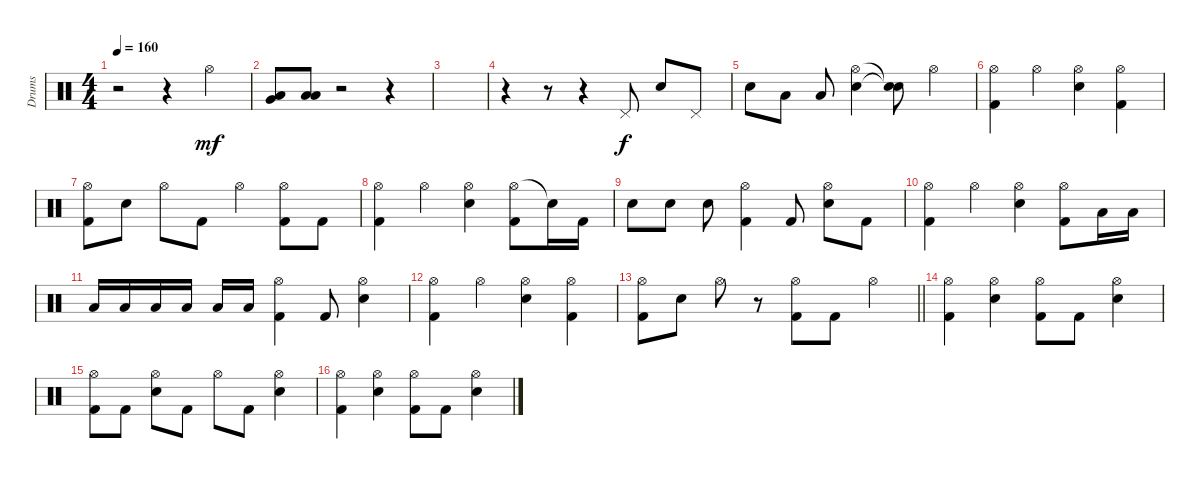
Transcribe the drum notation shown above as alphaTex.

\track ("Drums" "Drums") {instrument percussion}
\staff {score}
\articulation defaults
\ts (4 4)
\tempo 160
\clef neutral
\ks c
r.2{dy mf} r.4 "Hi-Hat (open)".4 |
("Very Low Tom (hit)" "Low Tom (hit)").8 ("Low Floor Tom (hit)" "Low Tom (hit)").8 r.2 r.4 |
|
r.4 r.8 r.4 "Pedal Hi-Hat (hit)".8{dy f} "Electric Snare (hit)".8 "Pedal Hi-Hat (hit)".8 |
"Electric Snare (hit)".8 "Low Tom (hit)".8 "Low Tom (hit)".8 ("Hi-Hat (open)" "Electric Snare (hit)").4 ("Snare (hit)"{t} "Snare (hit)"{t}).8 "Hi-Hat (open)".4 |
("Hi-Hat (open)" "Kick (hit) 2").4 "Hi-Hat (open)".4 ("Hi-Hat (open)" "Electric Snare (hit)").4 ("Hi-Hat (open)" "Kick (hit) 2").4 |
("Hi-Hat (open)" "Kick (hit) 2").8 "Electric Snare (hit)".8 "Hi-Hat (open)".8 "Kick (hit) 2".8 "Hi-Hat (open)".4 ("Hi-Hat (open)" "Kick (hit) 2").8 "Kick (hit) 2".8 |
("Hi-Hat (open)" "Kick (hit) 2").4 "Hi-Hat (open)".4 ("Hi-Hat (open)" "Electric Snare (hit)").4 ("Hi-Hat (open)" "Kick (hit) 2").8 "Snare (hit)"{t}.16 "Kick (hit) 2".16 |
"Electric Snare (hit)".8 "Electric Snare (hit)".8 "Electric Snare (hit)".8 ("Hi-Hat (open)" "Kick (hit) 2").4 "Kick (hit) 2".8 ("Hi-Hat (open)" "Electric Snare (hit)").8 "Kick (hit) 2".8 |
("Hi-Hat (open)" "Kick (hit) 2").4 "Hi-Hat (open)".4 ("Hi-Hat (open)" "Electric Snare (hit)").4 ("Hi-Hat (open)" "Kick (hit) 2").8 "Low Floor Tom (hit)".16 "Low Floor Tom (hit)".16 |
"Low Tom (hit)".16 "Low Tom (hit)".16 "Low Floor Tom (hit)".16 "Low Floor Tom (hit)".16 "Low Tom (hit)".16 "Low Tom (hit)".16 ("Hi-Hat (open)" "Kick (hit) 2").4 "Kick (hit) 2".8 ("Hi-Hat (open)" "Snare (hit) 2").4 |
("Hi-Hat (open)" "Kick (hit) 2").4 "Hi-Hat (open)".4 ("Hi-Hat (open)" "Electric Snare (hit)").4 ("Hi-Hat (open)" "Kick (hit) 2").4 |
\barLineRight lightlight
("Hi-Hat (open)" "Kick (hit) 2").8 "Electric Snare (hit)".8 "Hi-Hat (open)".8 r.8 ("Hi-Hat (open)" "Kick (hit) 2").8 "Kick (hit) 2".8 "Hi-Hat (open)".4 |
\section ("" "")
("Hi-Hat (open)" "Kick (hit) 2").4 ("Hi-Hat (open)" "Electric Snare (hit)").4 ("Hi-Hat (open)" "Kick (hit) 2").8 "Kick (hit) 2".8 ("Hi-Hat (open)" "Electric Snare (hit)").4 |
("Hi-Hat (open)" "Kick (hit) 2").8 "Kick (hit) 2".8 ("Hi-Hat (open)" "Electric Snare (hit)").8 "Kick (hit) 2".8 "Hi-Hat (open)".8 "Kick (hit) 2".8 ("Hi-Hat (open)" "Electric Snare (hit)").4 |
("Hi-Hat (open)" "Kick (hit) 2").4 ("Hi-Hat (open)" "Electric Snare (hit)").4 ("Hi-Hat (open)" "Kick (hit) 2").8 "Kick (hit) 2".8 ("Hi-Hat (open)" "Electric Snare (hit)").4
